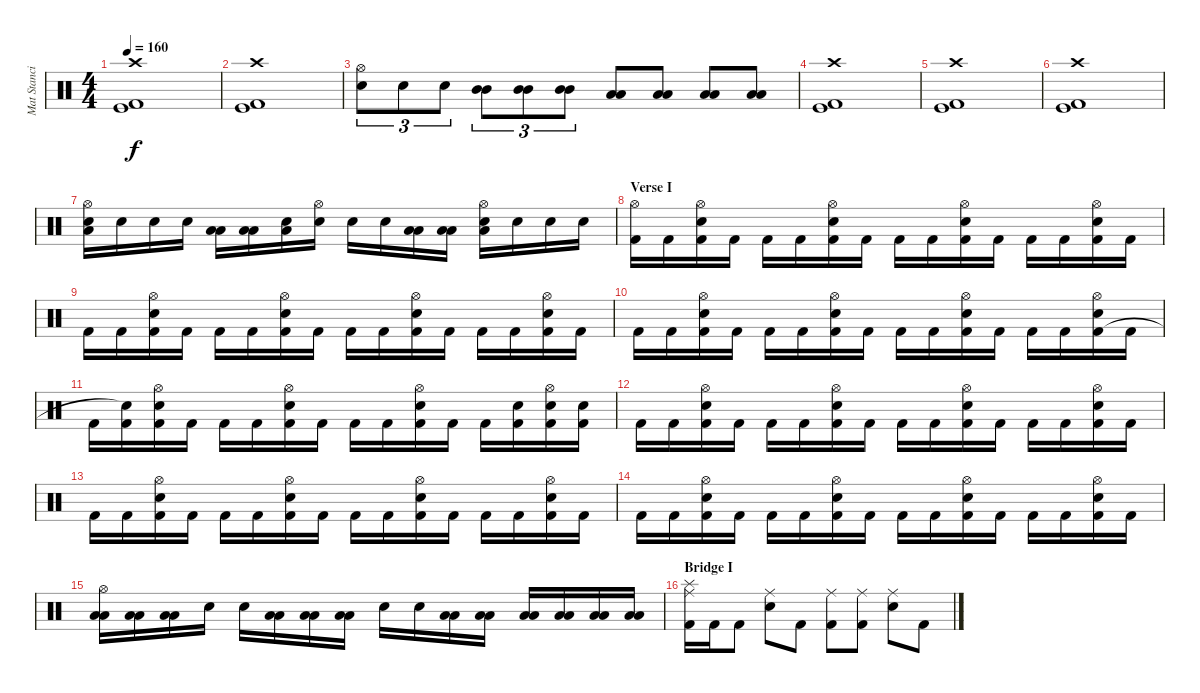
\track ("Mat Stancioiu" "Mat Stanci") {instrument percussion}
\staff {score}
\articulation defaults
\ts (4 4)
\tempo 160
\clef neutral
\ks c
("Kick (hit) 2" "Kick (hit)" "Crash high (hit)").1{dy f} |
("Kick (hit) 2" "Kick (hit)" "Crash high (hit)").1 |
("Electric Snare (hit)" "Hi-Hat (open)").8{tu (3 2)} "Electric Snare (hit)".8{tu (3 2)} "Electric Snare (hit)".8{tu (3 2)} ("Mid Tom (hit)" "Mid Tom (hit)").8{tu (3 2)} ("Mid Tom (hit)" "Mid Tom (hit)").8{tu (3 2)} ("Mid Tom (hit)" "Mid Tom (hit)").8{tu (3 2)} ("Low Tom (hit)" "Low Tom (hit)").8 ("Low Tom (hit)" "Low Tom (hit)").8 ("Low Floor Tom (hit)" "Low Floor Tom (hit)").8 ("Low Floor Tom (hit)" "Low Floor Tom (hit)").8 |
("Kick (hit) 2" "Kick (hit)" "Crash high (hit)").1 |
("Kick (hit) 2" "Kick (hit)" "Crash high (hit)").1 |
("Kick (hit) 2" "Kick (hit)" "Crash high (hit)").1 |
("Low Tom (hit)" "Electric Snare (hit)" "Hi-Hat (open)").16 "Electric Snare (hit)".16 "Electric Snare (hit)".16 "Electric Snare (hit)".16 ("Low Tom (hit)" "Low Tom (hit)").16 ("Low Tom (hit)" "Low Tom (hit)").16 ("Low Tom (hit)" "Electric Snare (hit)").16 ("Electric Snare (hit)" "Hi-Hat (open)").16 "Electric Snare (hit)".16 "Electric Snare (hit)".16 ("Low Tom (hit)" "Low Tom (hit)").16 ("Low Tom (hit)" "Low Tom (hit)").16 ("Low Tom (hit)" "Electric Snare (hit)" "Hi-Hat (open)").16 "Electric Snare (hit)".16 "Electric Snare (hit)".16 "Electric Snare (hit)".16 |
\section ("" "Verse I")
("Kick (hit) 2" "Hi-Hat (open)").16 "Kick (hit) 2".16 ("Electric Snare (hit)" "Kick (hit) 2" "Hi-Hat (open)").16 "Kick (hit) 2".16 "Kick (hit) 2".16 "Kick (hit) 2".16 ("Electric Snare (hit)" "Kick (hit) 2" "Hi-Hat (open)").16 "Kick (hit) 2".16 "Kick (hit) 2".16 "Kick (hit) 2".16 ("Electric Snare (hit)" "Kick (hit) 2" "Hi-Hat (open)").16 "Kick (hit) 2".16 "Kick (hit) 2".16 "Kick (hit) 2".16 ("Electric Snare (hit)" "Kick (hit) 2" "Hi-Hat (open)").16 "Kick (hit) 2".16 |
"Kick (hit) 2".16 "Kick (hit) 2".16 ("Electric Snare (hit)" "Kick (hit) 2" "Hi-Hat (open)").16 "Kick (hit) 2".16 "Kick (hit) 2".16 "Kick (hit) 2".16 ("Electric Snare (hit)" "Kick (hit) 2" "Hi-Hat (open)").16 "Kick (hit) 2".16 "Kick (hit) 2".16 "Kick (hit) 2".16 ("Electric Snare (hit)" "Kick (hit) 2" "Hi-Hat (open)").16 "Kick (hit) 2".16 "Kick (hit) 2".16 "Kick (hit) 2".16 ("Electric Snare (hit)" "Kick (hit) 2" "Hi-Hat (open)").16 "Kick (hit) 2".16 |
"Kick (hit) 2".16 "Kick (hit) 2".16 ("Electric Snare (hit)" "Kick (hit) 2" "Hi-Hat (open)").16 "Kick (hit) 2".16 "Kick (hit) 2".16 "Kick (hit) 2".16 ("Electric Snare (hit)" "Kick (hit) 2" "Hi-Hat (open)").16 "Kick (hit) 2".16 "Kick (hit) 2".16 "Kick (hit) 2".16 ("Electric Snare (hit)" "Kick (hit) 2" "Hi-Hat (open)").16 "Kick (hit) 2".16 "Kick (hit) 2".16 "Kick (hit) 2".16 ("Electric Snare (hit)" "Kick (hit) 2" "Hi-Hat (open)").16 "Kick (hit) 2".16 |
"Kick (hit) 2".16 ("Kick (hit) 2" "Snare (hit)"{t}).16 ("Electric Snare (hit)" "Kick (hit) 2" "Hi-Hat (open)").16 "Kick (hit) 2".16 "Kick (hit) 2".16 "Kick (hit) 2".16 ("Electric Snare (hit)" "Kick (hit) 2" "Hi-Hat (open)").16 "Kick (hit) 2".16 "Kick (hit) 2".16 "Kick (hit) 2".16 ("Electric Snare (hit)" "Kick (hit) 2" "Hi-Hat (open)").16 "Kick (hit) 2".16 "Kick (hit) 2".16 ("Electric Snare (hit)" "Kick (hit) 2").16 ("Electric Snare (hit)" "Kick (hit) 2" "Hi-Hat (open)").16 ("Electric Snare (hit)" "Kick (hit) 2").16 |
"Kick (hit) 2".16 "Kick (hit) 2".16 ("Electric Snare (hit)" "Kick (hit) 2" "Hi-Hat (open)").16 "Kick (hit) 2".16 "Kick (hit) 2".16 "Kick (hit) 2".16 ("Electric Snare (hit)" "Kick (hit) 2" "Hi-Hat (open)").16 "Kick (hit) 2".16 "Kick (hit) 2".16 "Kick (hit) 2".16 ("Electric Snare (hit)" "Kick (hit) 2" "Hi-Hat (open)").16 "Kick (hit) 2".16 "Kick (hit) 2".16 "Kick (hit) 2".16 ("Electric Snare (hit)" "Kick (hit) 2" "Hi-Hat (open)").16 "Kick (hit) 2".16 |
"Kick (hit) 2".16 "Kick (hit) 2".16 ("Electric Snare (hit)" "Kick (hit) 2" "Hi-Hat (open)").16 "Kick (hit) 2".16 "Kick (hit) 2".16 "Kick (hit) 2".16 ("Electric Snare (hit)" "Kick (hit) 2" "Hi-Hat (open)").16 "Kick (hit) 2".16 "Kick (hit) 2".16 "Kick (hit) 2".16 ("Electric Snare (hit)" "Kick (hit) 2" "Hi-Hat (open)").16 "Kick (hit) 2".16 "Kick (hit) 2".16 "Kick (hit) 2".16 ("Electric Snare (hit)" "Kick (hit) 2" "Hi-Hat (open)").16 "Kick (hit) 2".16 |
"Kick (hit) 2".16 "Kick (hit) 2".16 ("Electric Snare (hit)" "Kick (hit) 2" "Hi-Hat (open)").16 "Kick (hit) 2".16 "Kick (hit) 2".16 "Kick (hit) 2".16 ("Electric Snare (hit)" "Kick (hit) 2" "Hi-Hat (open)").16 "Kick (hit) 2".16 "Kick (hit) 2".16 "Kick (hit) 2".16 ("Electric Snare (hit)" "Kick (hit) 2" "Hi-Hat (open)").16 "Kick (hit) 2".16 "Kick (hit) 2".16 "Kick (hit) 2".16 ("Electric Snare (hit)" "Kick (hit) 2" "Hi-Hat (open)").16 "Kick (hit) 2".16 |
("Low Tom (hit)" "Low Tom (hit)" "Hi-Hat (open)").16 ("Low Tom (hit)" "Low Tom (hit)").16 ("Low Tom (hit)" "Low Tom (hit)").16 "Electric Snare (hit)".16 "Electric Snare (hit)".16 ("Low Tom (hit)" "Low Tom (hit)").16 ("Low Tom (hit)" "Low Tom (hit)").16 ("Low Tom (hit)" "Low Tom (hit)").16 "Electric Snare (hit)".16 "Electric Snare (hit)".16 ("Low Tom (hit)" "Low Tom (hit)").16 ("Low Tom (hit)" "Low Tom (hit)").16 ("Low Floor Tom (hit)" "Low Floor Tom (hit)").16 ("Low Floor Tom (hit)" "Low Floor Tom (hit)").16 ("Low Floor Tom (hit)" "Low Floor Tom (hit)").16 ("Low Floor Tom (hit)" "Low Floor Tom (hit)").16 |
\section ("" "Bridge I")
("Kick (hit) 2" "Ride (middle)" "Splash (hit)").16 "Kick (hit) 2".16 "Kick (hit) 2".8 ("Electric Snare (hit)" "Ride (middle)").8 "Kick (hit) 2".8 ("Kick (hit) 2" "Ride (middle)").8 ("Kick (hit) 2" "Ride (middle)").8 ("Electric Snare (hit)" "Ride (middle)").8 "Kick (hit) 2".8
